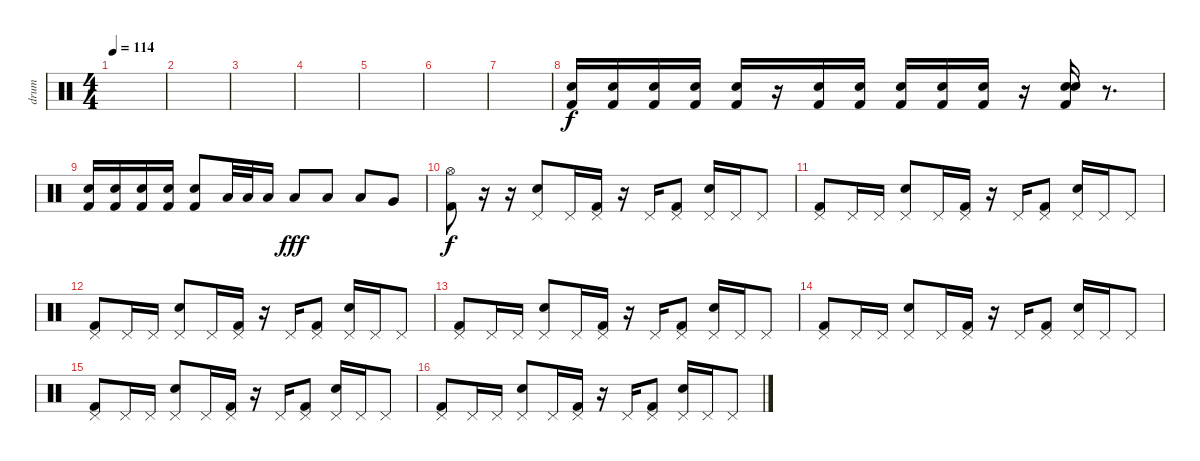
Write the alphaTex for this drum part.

\track ("drum" "drum") {instrument percussion}
\staff {score}
\articulation defaults
\ts (4 4)
\tempo 114
\clef neutral
\ks c
|
|
|
|
|
|
|
("Electric Snare (hit)" "Kick (hit) 2").16 ("Electric Snare (hit)" "Kick (hit) 2").16 ("Electric Snare (hit)" "Kick (hit) 2").16 ("Electric Snare (hit)" "Kick (hit) 2").16 ("Electric Snare (hit)" "Kick (hit) 2").16 r.16 ("Electric Snare (hit)" "Kick (hit) 2").16 ("Electric Snare (hit)" "Kick (hit) 2").16 ("Electric Snare (hit)" "Kick (hit) 2").16 ("Electric Snare (hit)" "Kick (hit) 2").16 ("Electric Snare (hit)" "Kick (hit) 2").16 r.16 ("Electric Snare (hit)" "Electric Snare (hit)" "Kick (hit) 2").16 r.8{d} |
("Electric Snare (hit)" "Kick (hit) 2").16 ("Electric Snare (hit)" "Kick (hit) 2").16 ("Electric Snare (hit)" "Kick (hit) 2").16 ("Electric Snare (hit)" "Kick (hit) 2").16 ("Electric Snare (hit)" "Kick (hit) 2").8 "Low Tom (hit)".32 "Low Tom (hit)".32 "Low Tom (hit)".16 "Low Tom (hit)".8{dy fff} "Low Tom (hit)".8 "Low Floor Tom (hit)".8 "Very Low Tom (hit)".8 |
("Hi-Hat (open)" "Kick (hit) 2").8{dy f} r.16 r.16 ("Pedal Hi-Hat (hit)" "Electric Snare (hit)").8 "Pedal Hi-Hat (hit)".16 ("Pedal Hi-Hat (hit)" "Kick (hit) 2").16 r.16 "Pedal Hi-Hat (hit)".16 ("Pedal Hi-Hat (hit)" "Kick (hit) 2").8 ("Pedal Hi-Hat (hit)" "Electric Snare (hit)").16 "Pedal Hi-Hat (hit)".16 "Pedal Hi-Hat (hit)".8 |
("Pedal Hi-Hat (hit)" "Kick (hit) 2").8 "Pedal Hi-Hat (hit)".16 "Pedal Hi-Hat (hit)".16 ("Pedal Hi-Hat (hit)" "Electric Snare (hit)").8 "Pedal Hi-Hat (hit)".16 ("Pedal Hi-Hat (hit)" "Kick (hit) 2").16 r.16 "Pedal Hi-Hat (hit)".16 ("Pedal Hi-Hat (hit)" "Kick (hit) 2").8 ("Pedal Hi-Hat (hit)" "Electric Snare (hit)").16 "Pedal Hi-Hat (hit)".16 "Pedal Hi-Hat (hit)".8 |
("Pedal Hi-Hat (hit)" "Kick (hit) 2").8 "Pedal Hi-Hat (hit)".16 "Pedal Hi-Hat (hit)".16 ("Pedal Hi-Hat (hit)" "Electric Snare (hit)").8 "Pedal Hi-Hat (hit)".16 ("Pedal Hi-Hat (hit)" "Kick (hit) 2").16 r.16 "Pedal Hi-Hat (hit)".16 ("Pedal Hi-Hat (hit)" "Kick (hit) 2").8 ("Pedal Hi-Hat (hit)" "Electric Snare (hit)").16 "Pedal Hi-Hat (hit)".16 "Pedal Hi-Hat (hit)".8 |
("Pedal Hi-Hat (hit)" "Kick (hit) 2").8 "Pedal Hi-Hat (hit)".16 "Pedal Hi-Hat (hit)".16 ("Pedal Hi-Hat (hit)" "Electric Snare (hit)").8 "Pedal Hi-Hat (hit)".16 ("Pedal Hi-Hat (hit)" "Kick (hit) 2").16 r.16 "Pedal Hi-Hat (hit)".16 ("Pedal Hi-Hat (hit)" "Kick (hit) 2").8 ("Pedal Hi-Hat (hit)" "Electric Snare (hit)").16 "Pedal Hi-Hat (hit)".16 "Pedal Hi-Hat (hit)".8 |
("Pedal Hi-Hat (hit)" "Kick (hit) 2").8 "Pedal Hi-Hat (hit)".16 "Pedal Hi-Hat (hit)".16 ("Pedal Hi-Hat (hit)" "Electric Snare (hit)").8 "Pedal Hi-Hat (hit)".16 ("Pedal Hi-Hat (hit)" "Kick (hit) 2").16 r.16 "Pedal Hi-Hat (hit)".16 ("Pedal Hi-Hat (hit)" "Kick (hit) 2").8 ("Pedal Hi-Hat (hit)" "Electric Snare (hit)").16 "Pedal Hi-Hat (hit)".16 "Pedal Hi-Hat (hit)".8 |
("Pedal Hi-Hat (hit)" "Kick (hit) 2").8 "Pedal Hi-Hat (hit)".16 "Pedal Hi-Hat (hit)".16 ("Pedal Hi-Hat (hit)" "Electric Snare (hit)").8 "Pedal Hi-Hat (hit)".16 ("Pedal Hi-Hat (hit)" "Kick (hit) 2").16 r.16 "Pedal Hi-Hat (hit)".16 ("Pedal Hi-Hat (hit)" "Kick (hit) 2").8 ("Pedal Hi-Hat (hit)" "Electric Snare (hit)").16 "Pedal Hi-Hat (hit)".16 "Pedal Hi-Hat (hit)".8 |
("Pedal Hi-Hat (hit)" "Kick (hit) 2").8 "Pedal Hi-Hat (hit)".16 "Pedal Hi-Hat (hit)".16 ("Pedal Hi-Hat (hit)" "Electric Snare (hit)").8 "Pedal Hi-Hat (hit)".16 ("Pedal Hi-Hat (hit)" "Kick (hit) 2").16 r.16 "Pedal Hi-Hat (hit)".16 ("Pedal Hi-Hat (hit)" "Kick (hit) 2").8 ("Pedal Hi-Hat (hit)" "Electric Snare (hit)").16 "Pedal Hi-Hat (hit)".16 "Pedal Hi-Hat (hit)".8
